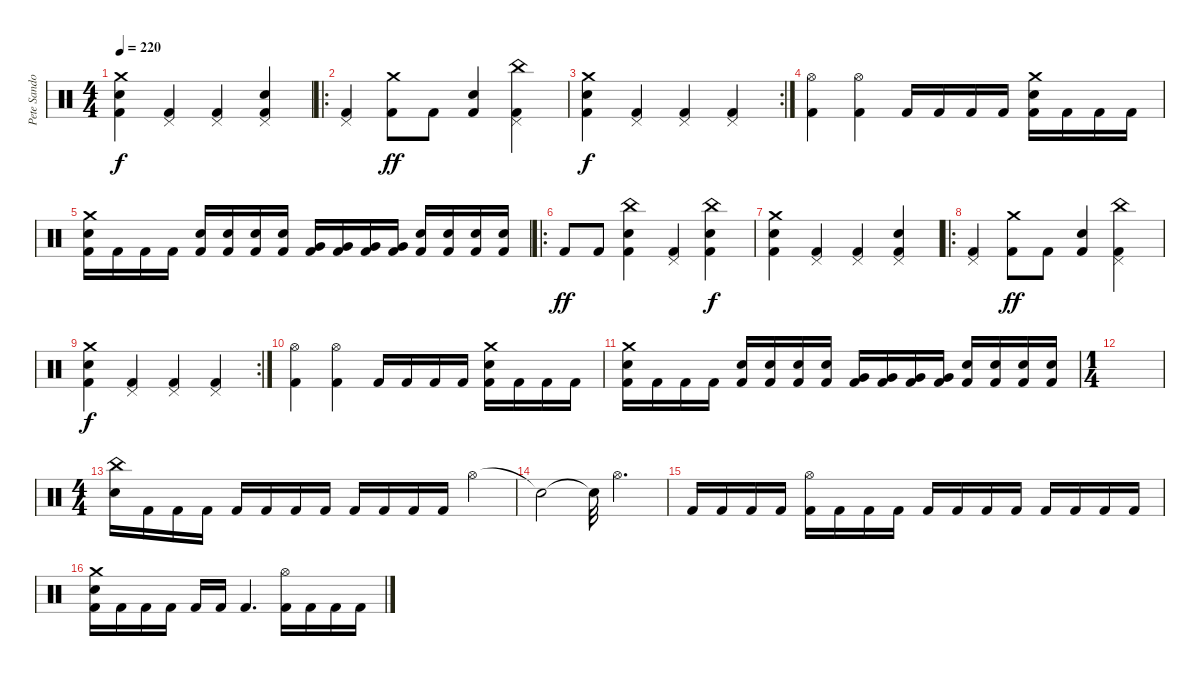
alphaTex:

\track ("Pete Sandoval" "Pete Sando") {instrument percussion}
\staff {score}
\articulation defaults
\ts (4 4)
\tempo 220
\clef neutral
\ks c
("Crash medium (hit)" "Electric Snare (hit)" "Kick (hit) 2").4{dy f} ("Pedal Hi-Hat (hit)" "Kick (hit) 2").4 ("Pedal Hi-Hat (hit)" "Kick (hit) 2").4 ("Pedal Hi-Hat (hit)" "Electric Snare (hit)" "Kick (hit) 2").4 |
\ro
("Pedal Hi-Hat (hit)" "Kick (hit) 2").4 ("Crash medium (hit)" "Kick (hit) 2").8{dy ff} "Kick (hit) 2".8 ("Electric Snare (hit)" "Kick (hit) 2").4 ("China (hit)" "Pedal Hi-Hat (hit)" "Kick (hit) 2").4 |
\rc 2
("Crash medium (hit)" "Electric Snare (hit)" "Kick (hit) 2").4{dy f} ("Pedal Hi-Hat (hit)" "Kick (hit) 2").4 ("Pedal Hi-Hat (hit)" "Kick (hit) 2").4 ("Pedal Hi-Hat (hit)" "Kick (hit) 2").4 |
("Hi-Hat (open)" "Kick (hit) 2").4 ("Hi-Hat (open)" "Kick (hit) 2").4 "Kick (hit) 2".16 "Kick (hit) 2".16 "Kick (hit) 2".16 "Kick (hit) 2".16 ("Crash medium (hit)" "Electric Snare (hit)" "Kick (hit) 2").16 "Kick (hit) 2".16 "Kick (hit) 2".16 "Kick (hit) 2".16 |
("Crash medium (hit)" "Electric Snare (hit)" "Kick (hit) 2").16 "Kick (hit) 2".16 "Kick (hit) 2".16 "Kick (hit) 2".16 ("Electric Snare (hit)" "Kick (hit) 2").16 ("Electric Snare (hit)" "Kick (hit) 2").16 ("Electric Snare (hit)" "Kick (hit) 2").16 ("Electric Snare (hit)" "Kick (hit) 2").16 ("Very Low Tom (hit)" "Kick (hit) 2").16 ("Very Low Tom (hit)" "Kick (hit) 2").16 ("Very Low Tom (hit)" "Kick (hit) 2").16 ("Very Low Tom (hit)" "Kick (hit) 2").16 ("Electric Snare (hit)" "Kick (hit) 2").16 ("Electric Snare (hit)" "Kick (hit) 2").16 ("Electric Snare (hit)" "Kick (hit) 2").16 ("Electric Snare (hit)" "Kick (hit) 2").16 |
\ro "Kick (hit) 2".8{dy ff} "Kick (hit) 2".8
("China (hit)" "Electric Snare (hit)" "Kick (hit) 2").4 ("Pedal Hi-Hat (hit)" "Kick (hit) 2").4 ("China (hit)" "Electric Snare (hit)" "Kick (hit) 2").4{dy f} |
("Crash medium (hit)" "Electric Snare (hit)" "Kick (hit) 2").4 ("Pedal Hi-Hat (hit)" "Kick (hit) 2").4 ("Pedal Hi-Hat (hit)" "Kick (hit) 2").4 ("Pedal Hi-Hat (hit)" "Electric Snare (hit)" "Kick (hit) 2").4 |
\ro
("Pedal Hi-Hat (hit)" "Kick (hit) 2").4 ("Crash medium (hit)" "Kick (hit) 2").8{dy ff} "Kick (hit) 2".8 ("Electric Snare (hit)" "Kick (hit) 2").4 ("China (hit)" "Pedal Hi-Hat (hit)" "Kick (hit) 2").4 |
\rc 2
("Crash medium (hit)" "Electric Snare (hit)" "Kick (hit) 2").4{dy f} ("Pedal Hi-Hat (hit)" "Kick (hit) 2").4 ("Pedal Hi-Hat (hit)" "Kick (hit) 2").4 ("Pedal Hi-Hat (hit)" "Kick (hit) 2").4 |
("Hi-Hat (open)" "Kick (hit) 2").4 ("Hi-Hat (open)" "Kick (hit) 2").4 "Kick (hit) 2".16 "Kick (hit) 2".16 "Kick (hit) 2".16 "Kick (hit) 2".16 ("Crash medium (hit)" "Electric Snare (hit)" "Kick (hit) 2").16 "Kick (hit) 2".16 "Kick (hit) 2".16 "Kick (hit) 2".16 |
("Crash medium (hit)" "Electric Snare (hit)" "Kick (hit) 2").16 "Kick (hit) 2".16 "Kick (hit) 2".16 "Kick (hit) 2".16 ("Electric Snare (hit)" "Kick (hit) 2").16 ("Electric Snare (hit)" "Kick (hit) 2").16 ("Electric Snare (hit)" "Kick (hit) 2").16 ("Electric Snare (hit)" "Kick (hit) 2").16 ("Very Low Tom (hit)" "Kick (hit) 2").16 ("Very Low Tom (hit)" "Kick (hit) 2").16 ("Very Low Tom (hit)" "Kick (hit) 2").16 ("Very Low Tom (hit)" "Kick (hit) 2").16 ("Electric Snare (hit)" "Kick (hit) 2").16 ("Electric Snare (hit)" "Kick (hit) 2").16 ("Electric Snare (hit)" "Kick (hit) 2").16 ("Electric Snare (hit)" "Kick (hit) 2").16 |
\ts (1 4)
|
\ts (4 4)
("China (hit)" "Electric Snare (hit)").16 "Kick (hit) 2".16 "Kick (hit) 2".16 "Kick (hit) 2".16 "Kick (hit) 2".16 "Kick (hit) 2".16 "Kick (hit) 2".16 "Kick (hit) 2".16 "Kick (hit) 2".16 "Kick (hit) 2".16 "Kick (hit) 2".16 "Kick (hit) 2".16 "Hi-Hat (open)".4 |
"Snare (hit)"{t}.2 "Snare (hit)"{t}.32 "Hi-Hat (open)".4{d} |
"Kick (hit) 2".16 "Kick (hit) 2".16 "Kick (hit) 2".16 "Kick (hit) 2".16 ("Hi-Hat (open)" "Kick (hit) 2").16 "Kick (hit) 2".16 "Kick (hit) 2".16 "Kick (hit) 2".16 "Kick (hit) 2".16 "Kick (hit) 2".16 "Kick (hit) 2".16 "Kick (hit) 2".16 "Kick (hit) 2".16 "Kick (hit) 2".16 "Kick (hit) 2".16 "Kick (hit) 2".16 |
("Crash medium (hit)" "Electric Snare (hit)" "Kick (hit) 2").16 "Kick (hit) 2".16 "Kick (hit) 2".16 "Kick (hit) 2".16 "Kick (hit) 2".16 "Kick (hit) 2".16 "Kick (hit) 2".4{d} ("Hi-Hat (open)" "Kick (hit) 2").16 "Kick (hit) 2".16 "Kick (hit) 2".16 "Kick (hit) 2".16
